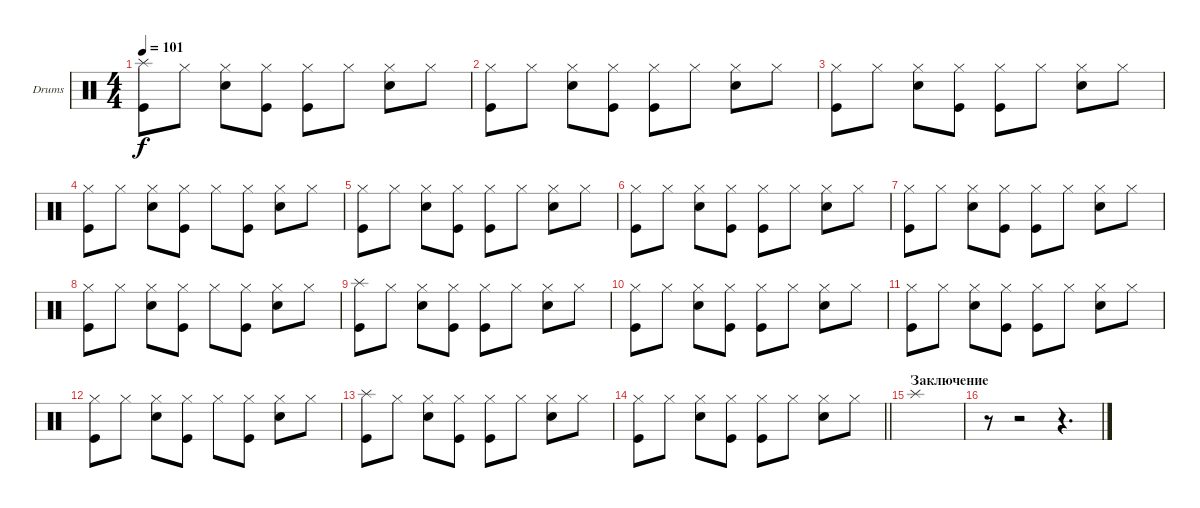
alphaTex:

\bracketExtendMode groupsimilarinstruments
\firstSystemTrackNameOrientation horizontal
\otherSystemsTrackNameOrientation horizontal
\track ("Г.Гурьянов (ударные)" "Drums") {instrument percussion}
\staff {score}
\articulation defaults
\ts (4 4)
\tempo 101
\clef neutral
\ks c
("Splash (hit)" "Kick (hit)").8{dy f} "Hi-Hat (closed)".8 ("Hi-Hat (closed)" "Snare (hit) 2").8 ("Hi-Hat (closed)" "Kick (hit)").8 ("Hi-Hat (closed)" "Kick (hit)").8 "Hi-Hat (closed)".8 ("Hi-Hat (closed)" "Snare (hit) 2").8 "Hi-Hat (closed)".8 |
("Hi-Hat (closed)" "Kick (hit)").8 "Hi-Hat (closed)".8 ("Hi-Hat (closed)" "Snare (hit) 2").8 ("Hi-Hat (closed)" "Kick (hit)").8 ("Hi-Hat (closed)" "Kick (hit)").8 "Hi-Hat (closed)".8 ("Hi-Hat (closed)" "Snare (hit) 2").8 "Hi-Hat (closed)".8 |
("Hi-Hat (closed)" "Kick (hit)").8 "Hi-Hat (closed)".8 ("Hi-Hat (closed)" "Snare (hit) 2").8 ("Hi-Hat (closed)" "Kick (hit)").8 ("Hi-Hat (closed)" "Kick (hit)").8 "Hi-Hat (closed)".8 ("Hi-Hat (closed)" "Snare (hit) 2").8 "Hi-Hat (closed)".8 |
("Hi-Hat (closed)" "Kick (hit)").8 "Hi-Hat (closed)".8 ("Hi-Hat (closed)" "Snare (hit) 2").8 ("Hi-Hat (closed)" "Kick (hit)").8 "Hi-Hat (closed)".8 ("Hi-Hat (closed)" "Kick (hit)").8 ("Hi-Hat (closed)" "Snare (hit) 2").8 "Hi-Hat (closed)".8 |
("Hi-Hat (closed)" "Kick (hit)").8 "Hi-Hat (closed)".8 ("Hi-Hat (closed)" "Snare (hit) 2").8 ("Hi-Hat (closed)" "Kick (hit)").8 ("Hi-Hat (closed)" "Kick (hit)").8 "Hi-Hat (closed)".8 ("Hi-Hat (closed)" "Snare (hit) 2").8 "Hi-Hat (closed)".8 |
("Hi-Hat (closed)" "Kick (hit)").8 "Hi-Hat (closed)".8 ("Hi-Hat (closed)" "Snare (hit) 2").8 ("Hi-Hat (closed)" "Kick (hit)").8 ("Hi-Hat (closed)" "Kick (hit)").8 "Hi-Hat (closed)".8 ("Hi-Hat (closed)" "Snare (hit) 2").8 "Hi-Hat (closed)".8 |
("Hi-Hat (closed)" "Kick (hit)").8 "Hi-Hat (closed)".8 ("Hi-Hat (closed)" "Snare (hit) 2").8 ("Hi-Hat (closed)" "Kick (hit)").8 ("Hi-Hat (closed)" "Kick (hit)").8 "Hi-Hat (closed)".8 ("Hi-Hat (closed)" "Snare (hit) 2").8 "Hi-Hat (closed)".8 |
("Hi-Hat (closed)" "Kick (hit)").8 "Hi-Hat (closed)".8 ("Hi-Hat (closed)" "Snare (hit) 2").8 ("Hi-Hat (closed)" "Kick (hit)").8 "Hi-Hat (closed)".8 ("Hi-Hat (closed)" "Kick (hit)").8 ("Hi-Hat (closed)" "Snare (hit) 2").8 "Hi-Hat (closed)".8 |
("Splash (hit)" "Kick (hit)").8 "Hi-Hat (closed)".8 ("Hi-Hat (closed)" "Snare (hit) 2").8 ("Hi-Hat (closed)" "Kick (hit)").8 ("Hi-Hat (closed)" "Kick (hit)").8 "Hi-Hat (closed)".8 ("Hi-Hat (closed)" "Snare (hit) 2").8 "Hi-Hat (closed)".8 |
("Hi-Hat (closed)" "Kick (hit)").8 "Hi-Hat (closed)".8 ("Hi-Hat (closed)" "Snare (hit) 2").8 ("Hi-Hat (closed)" "Kick (hit)").8 ("Hi-Hat (closed)" "Kick (hit)").8 "Hi-Hat (closed)".8 ("Hi-Hat (closed)" "Snare (hit) 2").8 "Hi-Hat (closed)".8 |
("Hi-Hat (closed)" "Kick (hit)").8 "Hi-Hat (closed)".8 ("Hi-Hat (closed)" "Snare (hit) 2").8 ("Hi-Hat (closed)" "Kick (hit)").8 ("Hi-Hat (closed)" "Kick (hit)").8 "Hi-Hat (closed)".8 ("Hi-Hat (closed)" "Snare (hit) 2").8 "Hi-Hat (closed)".8 |
("Hi-Hat (closed)" "Kick (hit)").8 "Hi-Hat (closed)".8 ("Hi-Hat (closed)" "Snare (hit) 2").8 ("Hi-Hat (closed)" "Kick (hit)").8 "Hi-Hat (closed)".8 ("Hi-Hat (closed)" "Kick (hit)").8 ("Hi-Hat (closed)" "Snare (hit) 2").8 "Hi-Hat (closed)".8 |
("Splash (hit)" "Kick (hit)").8 "Hi-Hat (closed)".8 ("Hi-Hat (closed)" "Snare (hit) 2").8 ("Hi-Hat (closed)" "Kick (hit)").8 ("Hi-Hat (closed)" "Kick (hit)").8 "Hi-Hat (closed)".8 ("Hi-Hat (closed)" "Snare (hit) 2").8 "Hi-Hat (closed)".8 |
\barLineRight lightlight
("Hi-Hat (closed)" "Kick (hit)").8 "Hi-Hat (closed)".8 ("Hi-Hat (closed)" "Snare (hit) 2").8 ("Hi-Hat (closed)" "Kick (hit)").8 ("Hi-Hat (closed)" "Kick (hit)").8 "Hi-Hat (closed)".8 ("Hi-Hat (closed)" "Snare (hit) 2").8 "Hi-Hat (closed)".8 |
\section ("" "Заключение")
"Splash (hit)".1 |
r.8 r.2 r.4{d}
